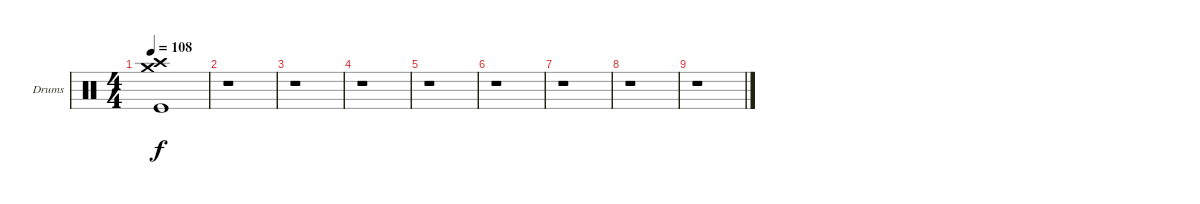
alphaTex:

\bracketExtendMode groupsimilarinstruments
\firstSystemTrackNameOrientation horizontal
\otherSystemsTrackNameOrientation horizontal
\track ("Drumkit" "Drums") {instrument percussion}
\staff {score}
\articulation defaults
\ts (4 4)
\tempo 108
\clef neutral
\ks c
("Crash high (hit)" "Crash medium (hit)" "Kick (hit)").1{dy f} |
r.1 |
r.1 |
r.1 |
r.1 |
r.1 |
r.1 |
r.1 |
r.1
